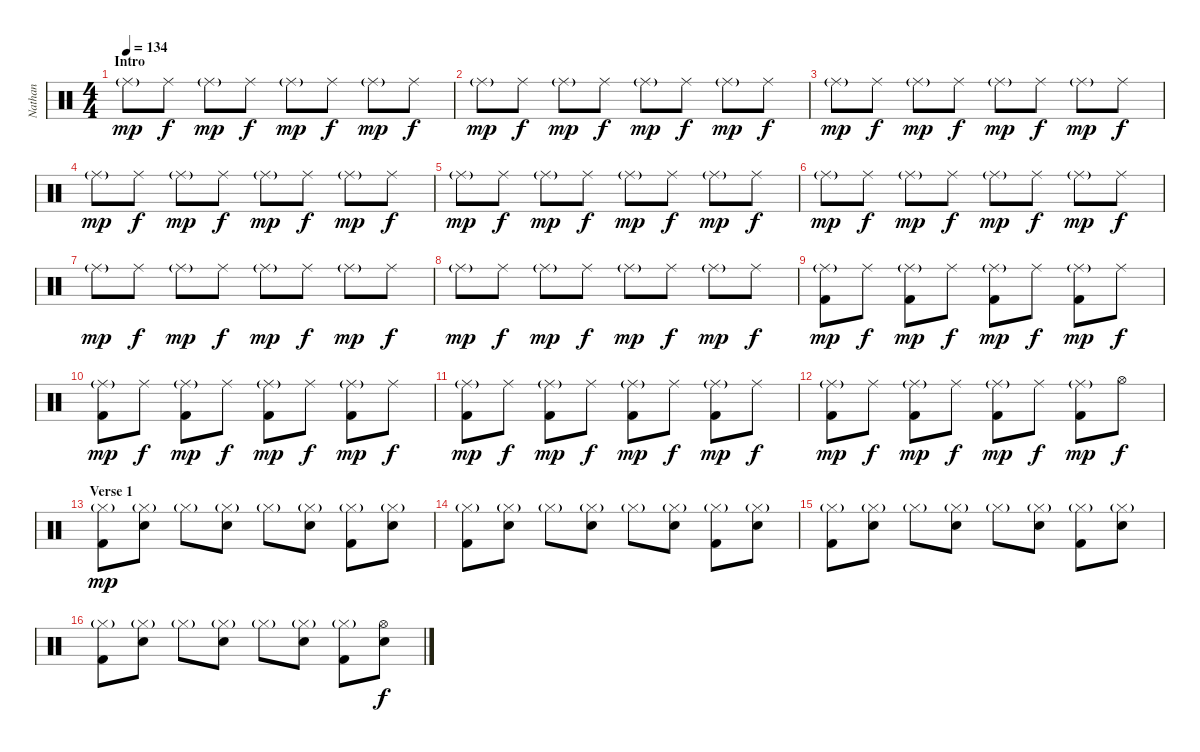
\track ("Nathan" "Nathan") {instrument percussion}
\staff {score}
\articulation defaults
\ts (4 4)
\section ("" "Intro")
\tempo 134
\clef neutral
\ks c "Ride (middle)"{g}.8{dy mp} "Ride (middle)".8{dy f} "Ride (middle)"{g}.8{dy mp} "Ride (middle)".8{dy f} "Ride (middle)"{g}.8{dy mp} "Ride (middle)".8{dy f} "Ride (middle)"{g}.8{dy mp} "Ride (middle)".8{dy f}
|
"Ride (middle)"{g}.8{dy mp} "Ride (middle)".8{dy f} "Ride (middle)"{g}.8{dy mp} "Ride (middle)".8{dy f} "Ride (middle)"{g}.8{dy mp} "Ride (middle)".8{dy f} "Ride (middle)"{g}.8{dy mp} "Ride (middle)".8{dy f} |
"Ride (middle)"{g}.8{dy mp} "Ride (middle)".8{dy f} "Ride (middle)"{g}.8{dy mp} "Ride (middle)".8{dy f} "Ride (middle)"{g}.8{dy mp} "Ride (middle)".8{dy f} "Ride (middle)"{g}.8{dy mp} "Ride (middle)".8{dy f} |
"Ride (middle)"{g}.8{dy mp} "Ride (middle)".8{dy f} "Ride (middle)"{g}.8{dy mp} "Ride (middle)".8{dy f} "Ride (middle)"{g}.8{dy mp} "Ride (middle)".8{dy f} "Ride (middle)"{g}.8{dy mp} "Ride (middle)".8{dy f} |
"Ride (middle)"{g}.8{dy mp} "Ride (middle)".8{dy f} "Ride (middle)"{g}.8{dy mp} "Ride (middle)".8{dy f} "Ride (middle)"{g}.8{dy mp} "Ride (middle)".8{dy f} "Ride (middle)"{g}.8{dy mp} "Ride (middle)".8{dy f} |
"Ride (middle)"{g}.8{dy mp} "Ride (middle)".8{dy f} "Ride (middle)"{g}.8{dy mp} "Ride (middle)".8{dy f} "Ride (middle)"{g}.8{dy mp} "Ride (middle)".8{dy f} "Ride (middle)"{g}.8{dy mp} "Ride (middle)".8{dy f} |
"Ride (middle)"{g}.8{dy mp} "Ride (middle)".8{dy f} "Ride (middle)"{g}.8{dy mp} "Ride (middle)".8{dy f} "Ride (middle)"{g}.8{dy mp} "Ride (middle)".8{dy f} "Ride (middle)"{g}.8{dy mp} "Ride (middle)".8{dy f} |
"Ride (middle)"{g}.8{dy mp} "Ride (middle)".8{dy f} "Ride (middle)"{g}.8{dy mp} "Ride (middle)".8{dy f} "Ride (middle)"{g}.8{dy mp} "Ride (middle)".8{dy f} "Ride (middle)"{g}.8{dy mp} "Ride (middle)".8{dy f} |
("Ride (middle)"{g} "Kick (hit) 2").8{dy mp} "Ride (middle)".8{dy f} ("Ride (middle)"{g} "Kick (hit) 2").8{dy mp} "Ride (middle)".8{dy f} ("Ride (middle)"{g} "Kick (hit) 2").8{dy mp} "Ride (middle)".8{dy f} ("Ride (middle)"{g} "Kick (hit) 2").8{dy mp} "Ride (middle)".8{dy f} |
("Ride (middle)"{g} "Kick (hit) 2").8{dy mp} "Ride (middle)".8{dy f} ("Ride (middle)"{g} "Kick (hit) 2").8{dy mp} "Ride (middle)".8{dy f} ("Ride (middle)"{g} "Kick (hit) 2").8{dy mp} "Ride (middle)".8{dy f} ("Ride (middle)"{g} "Kick (hit) 2").8{dy mp} "Ride (middle)".8{dy f} |
("Ride (middle)"{g} "Kick (hit) 2").8{dy mp} "Ride (middle)".8{dy f} ("Ride (middle)"{g} "Kick (hit) 2").8{dy mp} "Ride (middle)".8{dy f} ("Ride (middle)"{g} "Kick (hit) 2").8{dy mp} "Ride (middle)".8{dy f} ("Ride (middle)"{g} "Kick (hit) 2").8{dy mp} "Ride (middle)".8{dy f} |
("Ride (middle)"{g} "Kick (hit) 2").8{dy mp} "Ride (middle)".8{dy f} ("Ride (middle)"{g} "Kick (hit) 2").8{dy mp} "Ride (middle)".8{dy f} ("Ride (middle)"{g} "Kick (hit) 2").8{dy mp} "Ride (middle)".8{dy f} ("Ride (middle)"{g} "Kick (hit) 2").8{dy mp} "Hi-Hat (open)".8{dy f} |
\section ("" "Verse 1")
("Hi-Hat (closed)"{g} "Kick (hit) 2").8{dy mp} ("Hi-Hat (closed)"{g} "Snare (hit) 2").8 "Hi-Hat (closed)"{g}.8 ("Hi-Hat (closed)"{g} "Snare (hit) 2").8 "Hi-Hat (closed)"{g}.8 ("Hi-Hat (closed)"{g} "Snare (hit) 2").8 ("Hi-Hat (closed)"{g} "Kick (hit) 2").8 ("Hi-Hat (closed)"{g} "Snare (hit) 2").8 |
("Hi-Hat (closed)"{g} "Kick (hit) 2").8 ("Hi-Hat (closed)"{g} "Snare (hit) 2").8 "Hi-Hat (closed)"{g}.8 ("Hi-Hat (closed)"{g} "Snare (hit) 2").8 "Hi-Hat (closed)"{g}.8 ("Hi-Hat (closed)"{g} "Snare (hit) 2").8 ("Hi-Hat (closed)"{g} "Kick (hit) 2").8 ("Hi-Hat (closed)"{g} "Snare (hit) 2").8 |
("Hi-Hat (closed)"{g} "Kick (hit) 2").8 ("Hi-Hat (closed)"{g} "Snare (hit) 2").8 "Hi-Hat (closed)"{g}.8 ("Hi-Hat (closed)"{g} "Snare (hit) 2").8 "Hi-Hat (closed)"{g}.8 ("Hi-Hat (closed)"{g} "Snare (hit) 2").8 ("Hi-Hat (closed)"{g} "Kick (hit) 2").8 ("Hi-Hat (closed)"{g} "Snare (hit) 2").8 |
("Hi-Hat (closed)"{g} "Kick (hit) 2").8 ("Hi-Hat (closed)"{g} "Snare (hit) 2").8 "Hi-Hat (closed)"{g}.8 ("Hi-Hat (closed)"{g} "Snare (hit) 2").8 "Hi-Hat (closed)"{g}.8 ("Hi-Hat (closed)"{g} "Snare (hit) 2").8 ("Hi-Hat (closed)"{g} "Kick (hit) 2").8 ("Hi-Hat (open)" "Snare (hit) 2").8{dy f}
